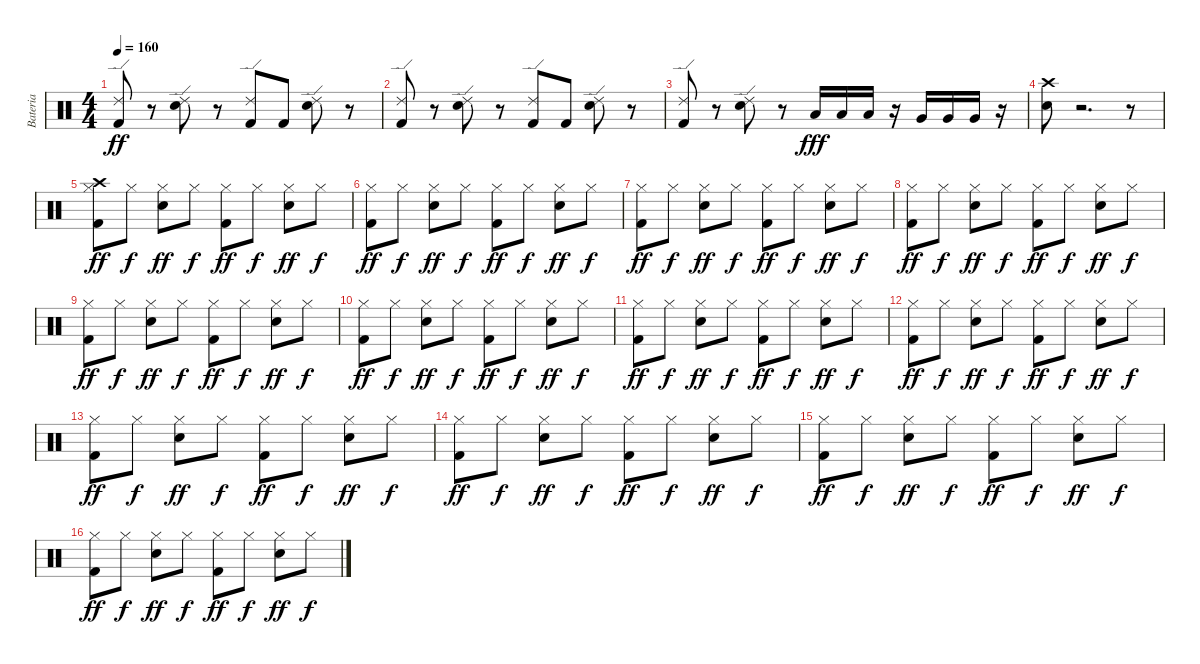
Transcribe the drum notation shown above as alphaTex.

\track ("Bateria" "Bateria") {instrument percussion}
\staff {score}
\articulation defaults
\ts (4 4)
\tempo 160
\clef neutral
\ks c
("Ride (edge) 2" "Kick (hit) 2").8{dy ff} r.8 ("Ride (edge) 2" "Snare (hit) 2").8 r.8 ("Ride (edge) 2" "Kick (hit) 2").8 "Kick (hit) 2".8 ("Ride (edge) 2" "Snare (hit) 2").8 r.8 |
("Ride (edge) 2" "Kick (hit) 2").8 r.8 ("Ride (edge) 2" "Snare (hit) 2").8 r.8 ("Ride (edge) 2" "Kick (hit) 2").8 "Kick (hit) 2".8 ("Ride (edge) 2" "Snare (hit) 2").8 r.8 |
("Ride (edge) 2" "Kick (hit) 2").8 r.8 ("Ride (edge) 2" "Snare (hit) 2").8 r.8 "Low Tom (hit)".16{dy fff} "Low Tom (hit)".16 "Low Tom (hit)".16 r.16 "Very Low Tom (hit)".16 "Very Low Tom (hit)".16 "Very Low Tom (hit)".16 r.16 |
("Snare (hit) 2" "Crash high (hit)").8 r.2{d} r.8 |
("Crash high (hit)" "Kick (hit) 2" "Hi-Hat (closed)").8{dy ff} "Hi-Hat (closed)".8{dy f} ("Hi-Hat (closed)" "Snare (hit) 2").8{dy ff} "Hi-Hat (closed)".8{dy f} ("Kick (hit) 2" "Hi-Hat (closed)").8{dy ff} "Hi-Hat (closed)".8{dy f} ("Hi-Hat (closed)" "Snare (hit) 2").8{dy ff} "Hi-Hat (closed)".8{dy f} |
("Kick (hit) 2" "Hi-Hat (closed)").8{dy ff} "Hi-Hat (closed)".8{dy f} ("Hi-Hat (closed)" "Snare (hit) 2").8{dy ff} "Hi-Hat (closed)".8{dy f} ("Kick (hit) 2" "Hi-Hat (closed)").8{dy ff} "Hi-Hat (closed)".8{dy f} ("Hi-Hat (closed)" "Snare (hit) 2").8{dy ff} "Hi-Hat (closed)".8{dy f} |
("Kick (hit) 2" "Hi-Hat (closed)").8{dy ff} "Hi-Hat (closed)".8{dy f} ("Hi-Hat (closed)" "Snare (hit) 2").8{dy ff} "Hi-Hat (closed)".8{dy f} ("Kick (hit) 2" "Hi-Hat (closed)").8{dy ff} "Hi-Hat (closed)".8{dy f} ("Hi-Hat (closed)" "Snare (hit) 2").8{dy ff} "Hi-Hat (closed)".8{dy f} |
("Kick (hit) 2" "Hi-Hat (closed)").8{dy ff} "Hi-Hat (closed)".8{dy f} ("Hi-Hat (closed)" "Snare (hit) 2").8{dy ff} "Hi-Hat (closed)".8{dy f} ("Kick (hit) 2" "Hi-Hat (closed)").8{dy ff} "Hi-Hat (closed)".8{dy f} ("Hi-Hat (closed)" "Snare (hit) 2").8{dy ff} "Hi-Hat (closed)".8{dy f} |
("Kick (hit) 2" "Hi-Hat (closed)").8{dy ff} "Hi-Hat (closed)".8{dy f} ("Hi-Hat (closed)" "Snare (hit) 2").8{dy ff} "Hi-Hat (closed)".8{dy f} ("Kick (hit) 2" "Hi-Hat (closed)").8{dy ff} "Hi-Hat (closed)".8{dy f} ("Hi-Hat (closed)" "Snare (hit) 2").8{dy ff} "Hi-Hat (closed)".8{dy f} |
("Kick (hit) 2" "Hi-Hat (closed)").8{dy ff} "Hi-Hat (closed)".8{dy f} ("Hi-Hat (closed)" "Snare (hit) 2").8{dy ff} "Hi-Hat (closed)".8{dy f} ("Kick (hit) 2" "Hi-Hat (closed)").8{dy ff} "Hi-Hat (closed)".8{dy f} ("Hi-Hat (closed)" "Snare (hit) 2").8{dy ff} "Hi-Hat (closed)".8{dy f} |
("Kick (hit) 2" "Hi-Hat (closed)").8{dy ff} "Hi-Hat (closed)".8{dy f} ("Hi-Hat (closed)" "Snare (hit) 2").8{dy ff} "Hi-Hat (closed)".8{dy f} ("Kick (hit) 2" "Hi-Hat (closed)").8{dy ff} "Hi-Hat (closed)".8{dy f} ("Hi-Hat (closed)" "Snare (hit) 2").8{dy ff} "Hi-Hat (closed)".8{dy f} |
("Kick (hit) 2" "Hi-Hat (closed)").8{dy ff} "Hi-Hat (closed)".8{dy f} ("Hi-Hat (closed)" "Snare (hit) 2").8{dy ff} "Hi-Hat (closed)".8{dy f} ("Kick (hit) 2" "Hi-Hat (closed)").8{dy ff} "Hi-Hat (closed)".8{dy f} ("Hi-Hat (closed)" "Snare (hit) 2").8{dy ff} "Hi-Hat (closed)".8{dy f} |
("Kick (hit) 2" "Hi-Hat (closed)").8{dy ff} "Hi-Hat (closed)".8{dy f} ("Hi-Hat (closed)" "Snare (hit) 2").8{dy ff} "Hi-Hat (closed)".8{dy f} ("Kick (hit) 2" "Hi-Hat (closed)").8{dy ff} "Hi-Hat (closed)".8{dy f} ("Hi-Hat (closed)" "Snare (hit) 2").8{dy ff} "Hi-Hat (closed)".8{dy f} |
("Kick (hit) 2" "Hi-Hat (closed)").8{dy ff} "Hi-Hat (closed)".8{dy f} ("Hi-Hat (closed)" "Snare (hit) 2").8{dy ff} "Hi-Hat (closed)".8{dy f} ("Kick (hit) 2" "Hi-Hat (closed)").8{dy ff} "Hi-Hat (closed)".8{dy f} ("Hi-Hat (closed)" "Snare (hit) 2").8{dy ff} "Hi-Hat (closed)".8{dy f} |
("Kick (hit) 2" "Hi-Hat (closed)").8{dy ff} "Hi-Hat (closed)".8{dy f} ("Hi-Hat (closed)" "Snare (hit) 2").8{dy ff} "Hi-Hat (closed)".8{dy f} ("Kick (hit) 2" "Hi-Hat (closed)").8{dy ff} "Hi-Hat (closed)".8{dy f} ("Hi-Hat (closed)" "Snare (hit) 2").8{dy ff} "Hi-Hat (closed)".8{dy f} |
("Kick (hit) 2" "Hi-Hat (closed)").8{dy ff} "Hi-Hat (closed)".8{dy f} ("Hi-Hat (closed)" "Snare (hit) 2").8{dy ff} "Hi-Hat (closed)".8{dy f} ("Kick (hit) 2" "Hi-Hat (closed)").8{dy ff} "Hi-Hat (closed)".8{dy f} ("Hi-Hat (closed)" "Snare (hit) 2").8{dy ff} "Hi-Hat (closed)".8{dy f}
